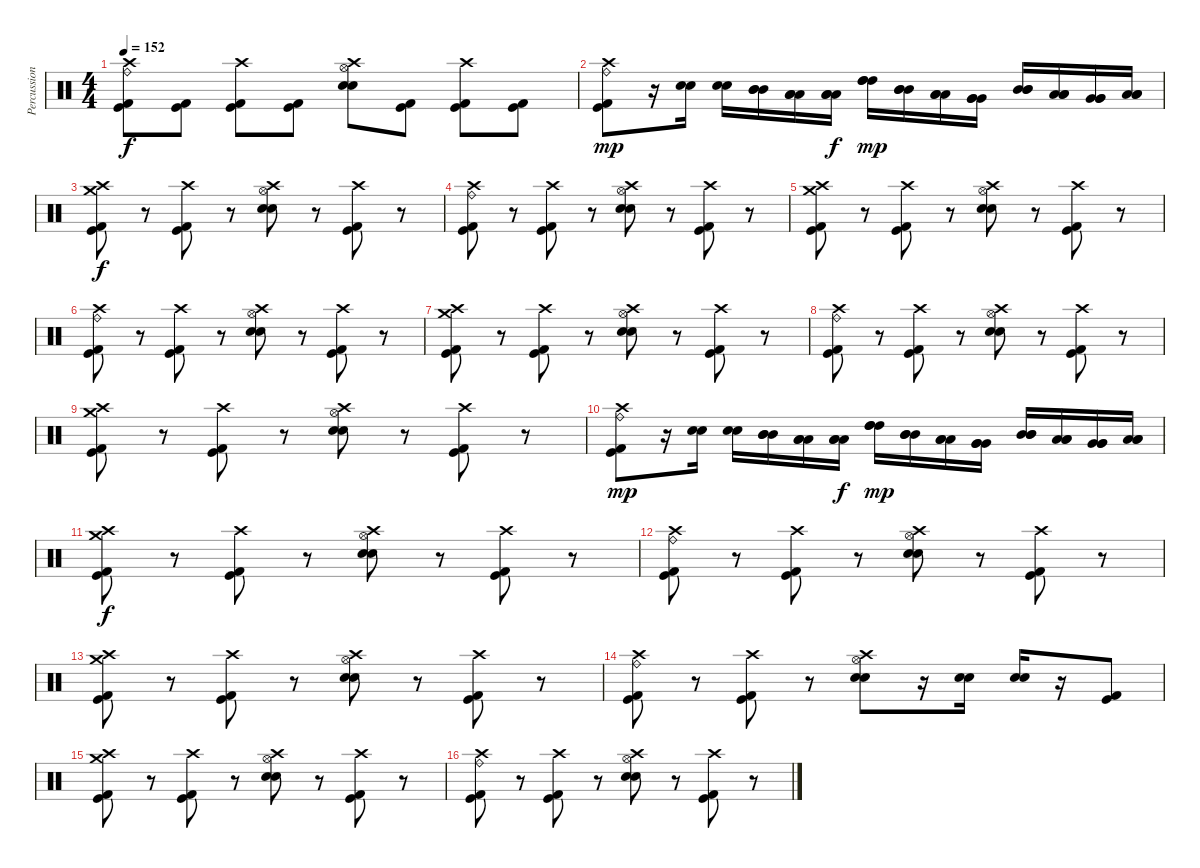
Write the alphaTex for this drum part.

\track ("Percussion" "Percussion") {instrument percussion}
\staff {score}
\articulation defaults
\ts (4 4)
\tempo 152
\clef neutral
\ks c
("Crash high (hit)" "Ride (bell)" "Kick (hit) 2" "Kick (hit)").8{dy f} ("Kick (hit) 2" "Kick (hit)").8 ("Crash high (hit)" "Kick (hit) 2" "Kick (hit)").8 ("Kick (hit) 2" "Kick (hit)").8 ("Crash high (hit)" "Hi-Hat (open)" "Electric Snare (hit)" "Snare (hit) 2").8 ("Kick (hit) 2" "Kick (hit)").8 ("Crash high (hit)" "Kick (hit) 2" "Kick (hit)").8 ("Kick (hit) 2" "Kick (hit)").8 |
("Crash high (hit)" "Ride (bell)" "Kick (hit) 2" "Kick (hit)").8{dy mp} r.16 ("Electric Snare (hit)" "Snare (hit) 2").16 ("Electric Snare (hit)" "Snare (hit) 2").16 ("Mid Tom (hit)" "Mid Tom (hit)" "Mid Tom (hit)").16 ("Low Tom (hit)" "Low Tom (hit)" "Low Tom (hit)").16 ("Low Tom (hit)" "Low Tom (hit)" "Low Tom (hit)").16{dy f} ("High Tom (hit)" "High Tom (hit)" "High Tom (hit)").16{dy mp} ("Mid Tom (hit)" "Mid Tom (hit)" "Mid Tom (hit)").16 ("Low Tom (hit)" "Low Tom (hit)" "Low Tom (hit)").16 ("Very Low Tom (hit)" "Very Low Tom (hit)" "Very Low Tom (hit)").16 ("Mid Tom (hit)" "Mid Tom (hit)" "Mid Tom (hit)").16 ("Low Tom (hit)" "Low Tom (hit)" "Low Tom (hit)").16 ("Very Low Tom (hit)" "Very Low Tom (hit)" "Very Low Tom (hit)").16 ("Low Floor Tom (hit)" "Low Floor Tom (hit)" "Low Floor Tom (hit)").16 |
("Crash high (hit)" "Crash medium (hit)" "Kick (hit) 2" "Kick (hit)").8{dy f} r.8 ("Crash high (hit)" "Kick (hit) 2" "Kick (hit)").8 r.8 ("Crash high (hit)" "Hi-Hat (open)" "Electric Snare (hit)" "Snare (hit) 2").8 r.8 ("Crash high (hit)" "Kick (hit) 2" "Kick (hit)").8 r.8 |
("Crash high (hit)" "Ride (bell)" "Kick (hit) 2" "Kick (hit)").8 r.8 ("Crash high (hit)" "Kick (hit) 2" "Kick (hit)").8 r.8 ("Crash high (hit)" "Hi-Hat (open)" "Electric Snare (hit)" "Snare (hit) 2").8 r.8 ("Crash high (hit)" "Kick (hit) 2" "Kick (hit)").8 r.8 |
("Crash high (hit)" "Crash medium (hit)" "Kick (hit) 2" "Kick (hit)").8 r.8 ("Crash high (hit)" "Kick (hit) 2" "Kick (hit)").8 r.8 ("Crash high (hit)" "Hi-Hat (open)" "Electric Snare (hit)" "Snare (hit) 2").8 r.8 ("Crash high (hit)" "Kick (hit) 2" "Kick (hit)").8 r.8 |
("Crash high (hit)" "Ride (bell)" "Kick (hit) 2" "Kick (hit)").8 r.8 ("Crash high (hit)" "Kick (hit) 2" "Kick (hit)").8 r.8 ("Crash high (hit)" "Hi-Hat (open)" "Electric Snare (hit)" "Snare (hit) 2").8 r.8 ("Crash high (hit)" "Kick (hit) 2" "Kick (hit)").8 r.8 |
("Crash high (hit)" "Crash medium (hit)" "Kick (hit) 2" "Kick (hit)").8 r.8 ("Crash high (hit)" "Kick (hit) 2" "Kick (hit)").8 r.8 ("Crash high (hit)" "Hi-Hat (open)" "Electric Snare (hit)" "Snare (hit) 2").8 r.8 ("Crash high (hit)" "Kick (hit) 2" "Kick (hit)").8 r.8 |
("Crash high (hit)" "Ride (bell)" "Kick (hit) 2" "Kick (hit)").8 r.8 ("Crash high (hit)" "Kick (hit) 2" "Kick (hit)").8 r.8 ("Crash high (hit)" "Hi-Hat (open)" "Electric Snare (hit)" "Snare (hit) 2").8 r.8 ("Crash high (hit)" "Kick (hit) 2" "Kick (hit)").8 r.8 |
("Crash high (hit)" "Crash medium (hit)" "Kick (hit) 2" "Kick (hit)").8 r.8 ("Crash high (hit)" "Kick (hit) 2" "Kick (hit)").8 r.8 ("Crash high (hit)" "Hi-Hat (open)" "Electric Snare (hit)" "Snare (hit) 2").8 r.8 ("Crash high (hit)" "Kick (hit) 2" "Kick (hit)").8 r.8 |
("Crash high (hit)" "Ride (bell)" "Kick (hit) 2" "Kick (hit)").8{dy mp} r.16 ("Electric Snare (hit)" "Snare (hit) 2").16 ("Electric Snare (hit)" "Snare (hit) 2").16 ("Mid Tom (hit)" "Mid Tom (hit)" "Mid Tom (hit)").16 ("Low Tom (hit)" "Low Tom (hit)" "Low Tom (hit)").16 ("Low Tom (hit)" "Low Tom (hit)" "Low Tom (hit)").16{dy f} ("High Tom (hit)" "High Tom (hit)" "High Tom (hit)").16{dy mp} ("Mid Tom (hit)" "Mid Tom (hit)" "Mid Tom (hit)").16 ("Low Tom (hit)" "Low Tom (hit)" "Low Tom (hit)").16 ("Very Low Tom (hit)" "Very Low Tom (hit)" "Very Low Tom (hit)").16 ("Mid Tom (hit)" "Mid Tom (hit)" "Mid Tom (hit)").16 ("Low Tom (hit)" "Low Tom (hit)" "Low Tom (hit)").16 ("Very Low Tom (hit)" "Very Low Tom (hit)" "Very Low Tom (hit)").16 ("Low Floor Tom (hit)" "Low Floor Tom (hit)" "Low Floor Tom (hit)").16 |
("Crash high (hit)" "Crash medium (hit)" "Kick (hit) 2" "Kick (hit)").8{dy f} r.8 ("Crash high (hit)" "Kick (hit) 2" "Kick (hit)").8 r.8 ("Crash high (hit)" "Hi-Hat (open)" "Electric Snare (hit)" "Snare (hit) 2").8 r.8 ("Crash high (hit)" "Kick (hit) 2" "Kick (hit)").8 r.8 |
("Crash high (hit)" "Ride (bell)" "Kick (hit) 2" "Kick (hit)").8 r.8 ("Crash high (hit)" "Kick (hit) 2" "Kick (hit)").8 r.8 ("Crash high (hit)" "Hi-Hat (open)" "Electric Snare (hit)" "Snare (hit) 2").8 r.8 ("Crash high (hit)" "Kick (hit) 2" "Kick (hit)").8 r.8 |
("Crash high (hit)" "Crash medium (hit)" "Kick (hit) 2" "Kick (hit)").8 r.8 ("Crash high (hit)" "Kick (hit) 2" "Kick (hit)").8 r.8 ("Crash high (hit)" "Hi-Hat (open)" "Electric Snare (hit)" "Snare (hit) 2").8 r.8 ("Crash high (hit)" "Kick (hit) 2" "Kick (hit)").8 r.8 |
("Crash high (hit)" "Ride (bell)" "Kick (hit) 2" "Kick (hit)").8 r.8 ("Crash high (hit)" "Kick (hit) 2" "Kick (hit)").8 r.8 ("Crash high (hit)" "Hi-Hat (open)" "Electric Snare (hit)" "Snare (hit) 2").8 r.16 ("Electric Snare (hit)" "Snare (hit) 2").16 ("Electric Snare (hit)" "Snare (hit) 2").16 r.16 ("Kick (hit) 2" "Kick (hit)").8 |
("Crash high (hit)" "Crash medium (hit)" "Kick (hit) 2" "Kick (hit)").8 r.8 ("Crash high (hit)" "Kick (hit) 2" "Kick (hit)").8 r.8 ("Crash high (hit)" "Hi-Hat (open)" "Electric Snare (hit)" "Snare (hit) 2").8 r.8 ("Crash high (hit)" "Kick (hit) 2" "Kick (hit)").8 r.8 |
("Crash high (hit)" "Ride (bell)" "Kick (hit) 2" "Kick (hit)").8 r.8 ("Crash high (hit)" "Kick (hit) 2" "Kick (hit)").8 r.8 ("Crash high (hit)" "Hi-Hat (open)" "Electric Snare (hit)" "Snare (hit) 2").8 r.8 ("Crash high (hit)" "Kick (hit) 2" "Kick (hit)").8 r.8
